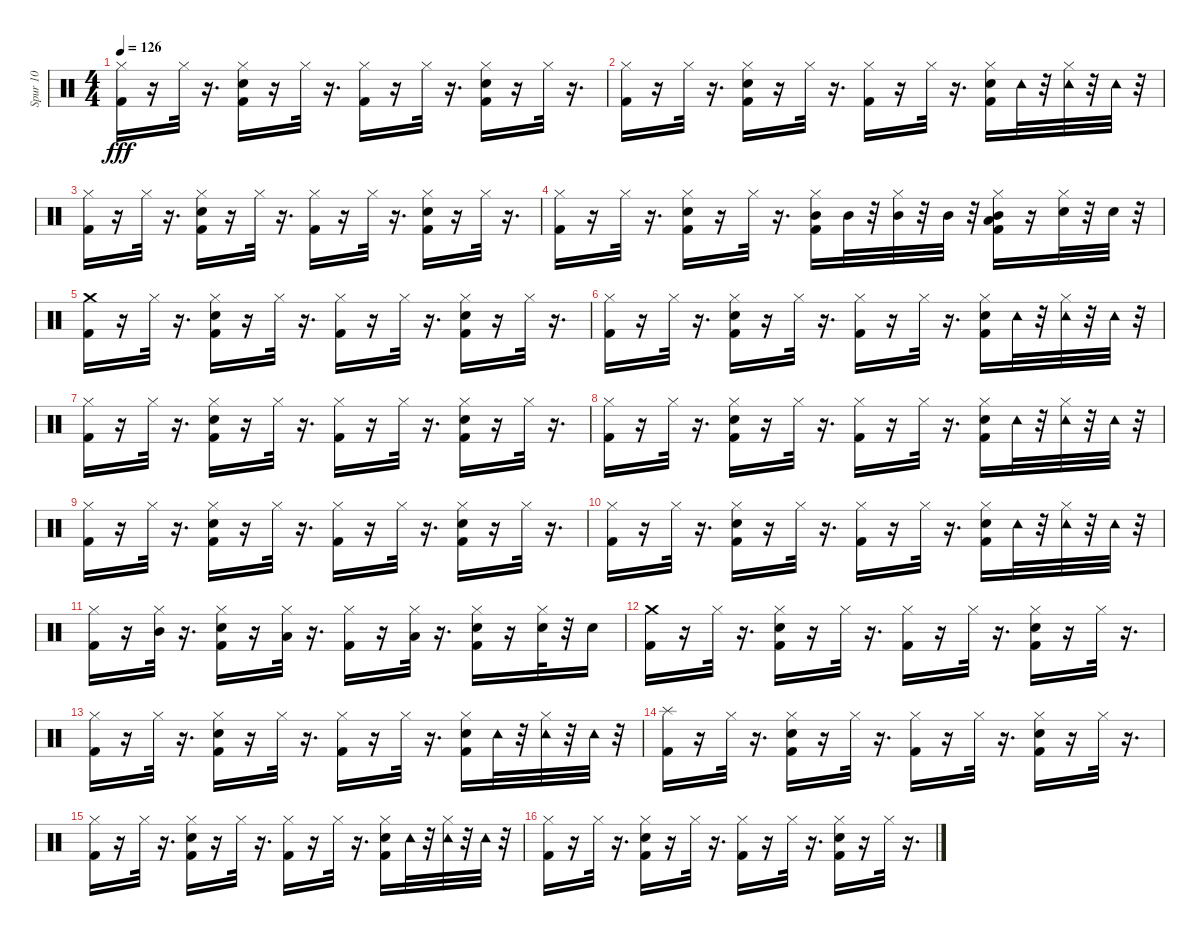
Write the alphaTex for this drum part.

\track ("Spur 10" "Spur 10") {instrument percussion}
\staff {score}
\articulation defaults
\ts (4 4)
\tempo 126
\clef neutral
\ks c
("Hi-Hat (closed)" "Kick (hit) 2").16{dy fff} r.16 "Hi-Hat (closed)".32 r.16{d} ("Hi-Hat (closed)" "Kick (hit) 2" "Snare (hit) 2").16 r.16 "Hi-Hat (closed)".32 r.16{d} ("Hi-Hat (closed)" "Kick (hit) 2").16 r.16 "Hi-Hat (closed)".32 r.16{d} ("Hi-Hat (closed)" "Snare (hit) 2" "Kick (hit) 2").16 r.16 "Hi-Hat (closed)".32 r.16{d} |
("Hi-Hat (closed)" "Kick (hit) 2").16 r.16 "Hi-Hat (closed)".32 r.16{d} ("Hi-Hat (closed)" "Snare (hit) 2" "Kick (hit) 2").16 r.16 "Hi-Hat (closed)".32 r.16{d} ("Hi-Hat (closed)" "Kick (hit) 2").16 r.16 "Hi-Hat (closed)".32 r.16{d} ("Hi-Hat (closed)" "Snare (hit) 2" "Kick (hit) 2").16 "Tambourine (hit)".32 r.32 ("Hi-Hat (closed)" "Tambourine (hit)").32 r.32 "Tambourine (hit)".32 r.32 |
("Hi-Hat (closed)" "Kick (hit) 2").16 r.16 "Hi-Hat (closed)".32 r.16{d} ("Hi-Hat (closed)" "Kick (hit) 2" "Snare (hit) 2").16 r.16 "Hi-Hat (closed)".32 r.16{d} ("Hi-Hat (closed)" "Kick (hit) 2").16 r.16 "Hi-Hat (closed)".32 r.16{d} ("Hi-Hat (closed)" "Snare (hit) 2" "Kick (hit) 2").16 r.16 "Hi-Hat (closed)".32 r.16{d} |
("Hi-Hat (closed)" "Kick (hit) 2").16 r.16 "Hi-Hat (closed)".32 r.16{d} ("Hi-Hat (closed)" "Snare (hit) 2" "Kick (hit) 2").16 r.16 "Hi-Hat (closed)".32 r.16{d} ("Hi-Hat (closed)" "Mid Tom (hit)" "Kick (hit) 2").16 "Mid Tom (hit)".32 r.32 ("Hi-Hat (closed)" "Mid Tom (hit)").32 r.32 "Mid Tom (hit)".32 r.32 ("Hi-Hat (closed)" "Mid Tom (hit)" "Low Tom (hit)" "Kick (hit) 2").16 r.16 ("Hi-Hat (closed)" "Snare (hit) 2").32 r.32 "Snare (hit) 2".32 r.32 |
("Crash medium (hit)" "Kick (hit) 2").16 r.16 "Hi-Hat (closed)".32 r.16{d} ("Hi-Hat (closed)" "Kick (hit) 2" "Snare (hit) 2").16 r.16 "Hi-Hat (closed)".32 r.16{d} ("Hi-Hat (closed)" "Kick (hit) 2").16 r.16 "Hi-Hat (closed)".32 r.16{d} ("Hi-Hat (closed)" "Snare (hit) 2" "Kick (hit) 2").16 r.16 "Hi-Hat (closed)".32 r.16{d} |
("Hi-Hat (closed)" "Kick (hit) 2").16 r.16 "Hi-Hat (closed)".32 r.16{d} ("Hi-Hat (closed)" "Snare (hit) 2" "Kick (hit) 2").16 r.16 "Hi-Hat (closed)".32 r.16{d} ("Hi-Hat (closed)" "Kick (hit) 2").16 r.16 "Hi-Hat (closed)".32 r.16{d} ("Hi-Hat (closed)" "Snare (hit) 2" "Kick (hit) 2").16 "Tambourine (hit)".32 r.32 ("Hi-Hat (closed)" "Tambourine (hit)").32 r.32 "Tambourine (hit)".32 r.32 |
("Hi-Hat (closed)" "Kick (hit) 2").16 r.16 "Hi-Hat (closed)".32 r.16{d} ("Hi-Hat (closed)" "Kick (hit) 2" "Snare (hit) 2").16 r.16 "Hi-Hat (closed)".32 r.16{d} ("Hi-Hat (closed)" "Kick (hit) 2").16 r.16 "Hi-Hat (closed)".32 r.16{d} ("Hi-Hat (closed)" "Snare (hit) 2" "Kick (hit) 2").16 r.16 "Hi-Hat (closed)".32 r.16{d} |
("Hi-Hat (closed)" "Kick (hit) 2").16 r.16 "Hi-Hat (closed)".32 r.16{d} ("Hi-Hat (closed)" "Snare (hit) 2" "Kick (hit) 2").16 r.16 "Hi-Hat (closed)".32 r.16{d} ("Hi-Hat (closed)" "Kick (hit) 2").16 r.16 "Hi-Hat (closed)".32 r.16{d} ("Hi-Hat (closed)" "Snare (hit) 2" "Kick (hit) 2").16 "Tambourine (hit)".32 r.32 ("Hi-Hat (closed)" "Tambourine (hit)").32 r.32 "Tambourine (hit)".32 r.32 |
("Hi-Hat (closed)" "Kick (hit) 2").16 r.16 "Hi-Hat (closed)".32 r.16{d} ("Hi-Hat (closed)" "Kick (hit) 2" "Snare (hit) 2").16 r.16 "Hi-Hat (closed)".32 r.16{d} ("Hi-Hat (closed)" "Kick (hit) 2").16 r.16 "Hi-Hat (closed)".32 r.16{d} ("Hi-Hat (closed)" "Snare (hit) 2" "Kick (hit) 2").16 r.16 "Hi-Hat (closed)".32 r.16{d} |
("Hi-Hat (closed)" "Kick (hit) 2").16 r.16 "Hi-Hat (closed)".32 r.16{d} ("Hi-Hat (closed)" "Snare (hit) 2" "Kick (hit) 2").16 r.16 "Hi-Hat (closed)".32 r.16{d} ("Hi-Hat (closed)" "Kick (hit) 2").16 r.16 "Hi-Hat (closed)".32 r.16{d} ("Hi-Hat (closed)" "Snare (hit) 2" "Kick (hit) 2").16 "Tambourine (hit)".32 r.32 ("Hi-Hat (closed)" "Tambourine (hit)").32 r.32 "Tambourine (hit)".32 r.32 |
("Hi-Hat (closed)" "Kick (hit) 2").16 r.16 ("Hi-Hat (closed)" "Mid Tom (hit)").32 r.16{d} ("Hi-Hat (closed)" "Snare (hit) 2" "Kick (hit) 2").16 r.16 ("Hi-Hat (closed)" "Low Tom (hit)").32 r.16{d} ("Hi-Hat (closed)" "Kick (hit) 2").16 r.16 ("Hi-Hat (closed)" "Low Tom (hit)").32 r.16{d} ("Hi-Hat (closed)" "Snare (hit) 2" "Kick (hit) 2").16 r.16 ("Hi-Hat (closed)" "Snare (hit) 2").32 r.32 "Snare (hit) 2".16 |
("Crash medium (hit)" "Kick (hit) 2").16 r.16 "Hi-Hat (closed)".32 r.16{d} ("Hi-Hat (closed)" "Kick (hit) 2" "Snare (hit) 2").16 r.16 "Hi-Hat (closed)".32 r.16{d} ("Hi-Hat (closed)" "Kick (hit) 2").16 r.16 "Hi-Hat (closed)".32 r.16{d} ("Hi-Hat (closed)" "Snare (hit) 2" "Kick (hit) 2").16 r.16 "Hi-Hat (closed)".32 r.16{d} |
("Hi-Hat (closed)" "Kick (hit) 2").16 r.16 "Hi-Hat (closed)".32 r.16{d} ("Hi-Hat (closed)" "Snare (hit) 2" "Kick (hit) 2").16 r.16 "Hi-Hat (closed)".32 r.16{d} ("Hi-Hat (closed)" "Kick (hit) 2").16 r.16 "Hi-Hat (closed)".32 r.16{d} ("Hi-Hat (closed)" "Snare (hit) 2" "Kick (hit) 2").16 "Tambourine (hit)".32 r.32 ("Hi-Hat (closed)" "Tambourine (hit)").32 r.32 "Tambourine (hit)".32 r.32 |
("Splash (hit)" "Kick (hit) 2").16 r.16 "Hi-Hat (closed)".32 r.16{d} ("Hi-Hat (closed)" "Kick (hit) 2" "Snare (hit) 2").16 r.16 "Hi-Hat (closed)".32 r.16{d} ("Hi-Hat (closed)" "Kick (hit) 2").16 r.16 "Hi-Hat (closed)".32 r.16{d} ("Hi-Hat (closed)" "Snare (hit) 2" "Kick (hit) 2").16 r.16 "Hi-Hat (closed)".32 r.16{d} |
("Hi-Hat (closed)" "Kick (hit) 2").16 r.16 "Hi-Hat (closed)".32 r.16{d} ("Hi-Hat (closed)" "Snare (hit) 2" "Kick (hit) 2").16 r.16 "Hi-Hat (closed)".32 r.16{d} ("Hi-Hat (closed)" "Kick (hit) 2").16 r.16 "Hi-Hat (closed)".32 r.16{d} ("Hi-Hat (closed)" "Snare (hit) 2" "Kick (hit) 2").16 "Tambourine (hit)".32 r.32 ("Hi-Hat (closed)" "Tambourine (hit)").32 r.32 "Tambourine (hit)".32 r.32 |
("Hi-Hat (closed)" "Kick (hit) 2").16 r.16 "Hi-Hat (closed)".32 r.16{d} ("Hi-Hat (closed)" "Kick (hit) 2" "Snare (hit) 2").16 r.16 "Hi-Hat (closed)".32 r.16{d} ("Hi-Hat (closed)" "Kick (hit) 2").16 r.16 "Hi-Hat (closed)".32 r.16{d} ("Hi-Hat (closed)" "Snare (hit) 2" "Kick (hit) 2").16 r.16 "Hi-Hat (closed)".32 r.16{d}
